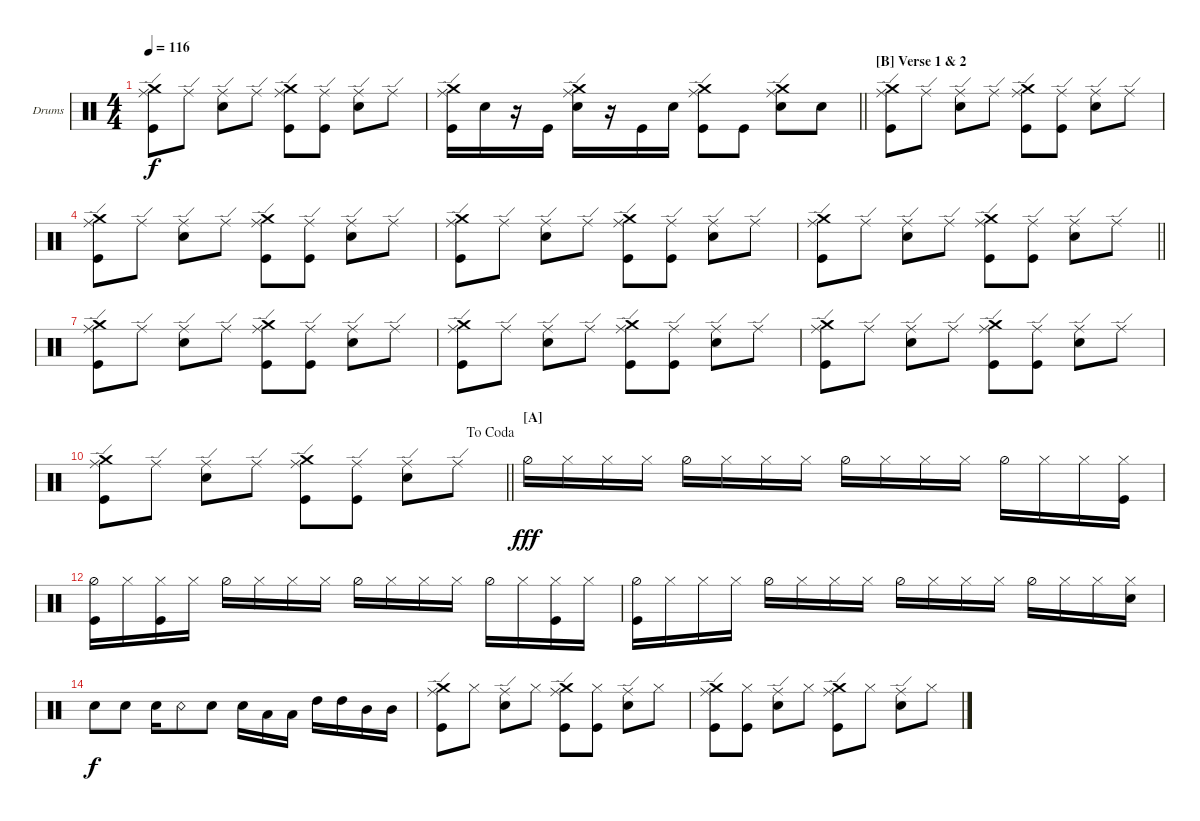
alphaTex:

\bracketExtendMode nobrackets
\firstSystemTrackNameOrientation horizontal
\otherSystemsTrackNameOrientation horizontal
\defaultBarNumberDisplay FirstOfSystem
\track ("Drumkit" "Drums") {instrument percussion}
\staff {score}
\articulation defaults
\ts (4 4)
\scale
0.48433
\tempo 116
\accidentals auto
\clef neutral
\ottava regular
\simile none
\scale
0.49676
\ks c
("Kick (hit)" "Ride (edge)" "Crash medium (hit)").8{dy f} "Ride (edge)".8 ("Snare (hit) 2" "Ride (edge)").8 "Ride (edge)".8 ("Kick (hit)" "Ride (edge)" "Crash medium (hit)").8 ("Kick (hit)" "Ride (edge)").8 ("Snare (hit) 2" "Ride (edge)").8 "Ride (edge)".8 |
\scale
0.50324
\barLineRight lightlight
("Kick (hit)" "Ride (edge)" "Crash medium (hit)").16 "Snare (hit) 2".16 r.16 "Kick (hit)".16 ("Snare (hit) 2" "Ride (edge)" "Crash medium (hit)").16 r.16 "Kick (hit)".16 "Snare (hit) 2".16 ("Kick (hit)" "Ride (edge)" "Crash medium (hit)").8 "Kick (hit)".8 ("Snare (hit) 2" "Ride (edge)" "Crash medium (hit)").8 "Snare (hit) 2".8 |
\section ("B" "Verse 1 & 2")
("Kick (hit)" "Ride (edge)" "Crash medium (hit)").8 "Ride (edge)".8 ("Snare (hit) 2" "Ride (edge)").8 "Ride (edge)".8 ("Kick (hit)" "Ride (edge)" "Crash medium (hit)").8 ("Kick (hit)" "Ride (edge)").8 ("Snare (hit) 2" "Ride (edge)").8 "Ride (edge)".8 |
("Kick (hit)" "Ride (edge)" "Crash medium (hit)").8 "Ride (edge)".8 ("Snare (hit) 2" "Ride (edge)").8 "Ride (edge)".8 ("Kick (hit)" "Ride (edge)" "Crash medium (hit)").8 ("Kick (hit)" "Ride (edge)").8 ("Snare (hit) 2" "Ride (edge)").8 "Ride (edge)".8 |
("Kick (hit)" "Ride (edge)" "Crash medium (hit)").8 "Ride (edge)".8 ("Snare (hit) 2" "Ride (edge)").8 "Ride (edge)".8 ("Kick (hit)" "Ride (edge)" "Crash medium (hit)").8 ("Kick (hit)" "Ride (edge)").8 ("Snare (hit) 2" "Ride (edge)").8 "Ride (edge)".8 |
\barLineRight lightlight
("Kick (hit)" "Ride (edge)" "Crash medium (hit)").8 "Ride (edge)".8 ("Snare (hit) 2" "Ride (edge)").8 "Ride (edge)".8 ("Kick (hit)" "Ride (edge)" "Crash medium (hit)").8 ("Kick (hit)" "Ride (edge)").8 ("Snare (hit) 2" "Ride (edge)").8 "Ride (edge)".8 |
("Kick (hit)" "Ride (edge)" "Crash medium (hit)").8 "Ride (edge)".8 ("Snare (hit) 2" "Ride (edge)").8 "Ride (edge)".8 ("Kick (hit)" "Ride (edge)" "Crash medium (hit)").8 ("Kick (hit)" "Ride (edge)").8 ("Snare (hit) 2" "Ride (edge)").8 "Ride (edge)".8 |
("Kick (hit)" "Ride (edge)" "Crash medium (hit)").8 "Ride (edge)".8 ("Snare (hit) 2" "Ride (edge)").8 "Ride (edge)".8 ("Kick (hit)" "Ride (edge)" "Crash medium (hit)").8 ("Kick (hit)" "Ride (edge)").8 ("Snare (hit) 2" "Ride (edge)").8 "Ride (edge)".8 |
\scale
0.427918 ("Kick (hit)" "Ride (edge)" "Crash medium (hit)").8 "Ride (edge)".8 ("Snare (hit) 2" "Ride (edge)").8 "Ride (edge)".8 ("Kick (hit)" "Ride (edge)" "Crash medium (hit)").8 ("Kick (hit)" "Ride (edge)").8 ("Snare (hit) 2" "Ride (edge)").8 "Ride (edge)".8 |
\jump dacoda
\scale
0.572082
\barLineRight lightlight
("Kick (hit)" "Ride (edge)" "Crash medium (hit)").8 "Ride (edge)".8 ("Snare (hit) 2" "Ride (edge)").8 "Ride (edge)".8 ("Kick (hit)" "Ride (edge)" "Crash medium (hit)").8 ("Kick (hit)" "Ride (edge)").8 ("Snare (hit) 2" "Ride (edge)").8 "Ride (edge)".8 |
\section ("A" "")
\scale
0.488823 "Hi-Hat (half)".16{dy fff} "Hi-Hat (closed)".16 "Hi-Hat (closed)".16 "Hi-Hat (closed)".16 "Hi-Hat (half)".16 "Hi-Hat (closed)".16 "Hi-Hat (closed)".16 "Hi-Hat (closed)".16 "Hi-Hat (half)".16 "Hi-Hat (closed)".16 "Hi-Hat (closed)".16 "Hi-Hat (closed)".16 "Hi-Hat (half)".16 "Hi-Hat (closed)".16 "Hi-Hat (closed)".16 ("Hi-Hat (closed)" "Kick (hit)").16 |
\scale
0.511177 ("Hi-Hat (half)" "Kick (hit)").16 "Hi-Hat (closed)".16 ("Hi-Hat (closed)" "Kick (hit)").16 "Hi-Hat (closed)".16 "Hi-Hat (half)".16 "Hi-Hat (closed)".16 "Hi-Hat (closed)".16 "Hi-Hat (closed)".16 "Hi-Hat (half)".16 "Hi-Hat (closed)".16 "Hi-Hat (closed)".16 "Hi-Hat (closed)".16 "Hi-Hat (half)".16 "Hi-Hat (closed)".16 ("Hi-Hat (closed)" "Kick (hit)").16 "Hi-Hat (closed)".16 |
\scale
0.620072 ("Hi-Hat (half)" "Kick (hit)").16 "Hi-Hat (closed)".16 "Hi-Hat (closed)".16 "Hi-Hat (closed)".16 "Hi-Hat (half)".16 "Hi-Hat (closed)".16 "Hi-Hat (closed)".16 "Hi-Hat (closed)".16 "Hi-Hat (half)".16 "Hi-Hat (closed)".16 "Hi-Hat (closed)".16 "Hi-Hat (closed)".16 "Hi-Hat (half)".16 "Hi-Hat (closed)".16 "Hi-Hat (closed)".16 ("Hi-Hat (closed)" "Snare (hit) 2").16 |
\scale
0.379928 "Snare (hit) 2".8{dy f} "Snare (hit) 2".8 "Snare (hit) 2".16 "Snare (rim shot)".8 "Snare (hit) 2".8 "Snare (hit) 2".16 "Low Tom (hit)".16 "Low Tom (hit)".16 "High Tom (hit)".16 "High Tom (hit)".16 "Mid Tom (hit)".16 "Mid Tom (hit)".16 |
\scale
0.5 ("Kick (hit)" "Crash medium (hit)" "Ride (edge)").8 "Hi-Hat (closed)".8 ("Snare (hit) 2" "Ride (edge)").8 "Hi-Hat (closed)".8 ("Kick (hit)" "Crash medium (hit)" "Ride (edge)").8 ("Kick (hit)" "Hi-Hat (closed)").8 ("Snare (hit) 2" "Ride (edge)").8 "Hi-Hat (closed)".8 |
\scale
0.5 ("Kick (hit)" "Ride (edge)" "Crash medium (hit)").8 ("Hi-Hat (closed)" "Kick (hit)").8 ("Snare (hit) 2" "Ride (edge)").8 "Hi-Hat (closed)".8 ("Kick (hit)" "Ride (edge)" "Crash medium (hit)").8 "Hi-Hat (closed)".8 ("Snare (hit) 2" "Ride (edge)").8 "Hi-Hat (closed)".8
